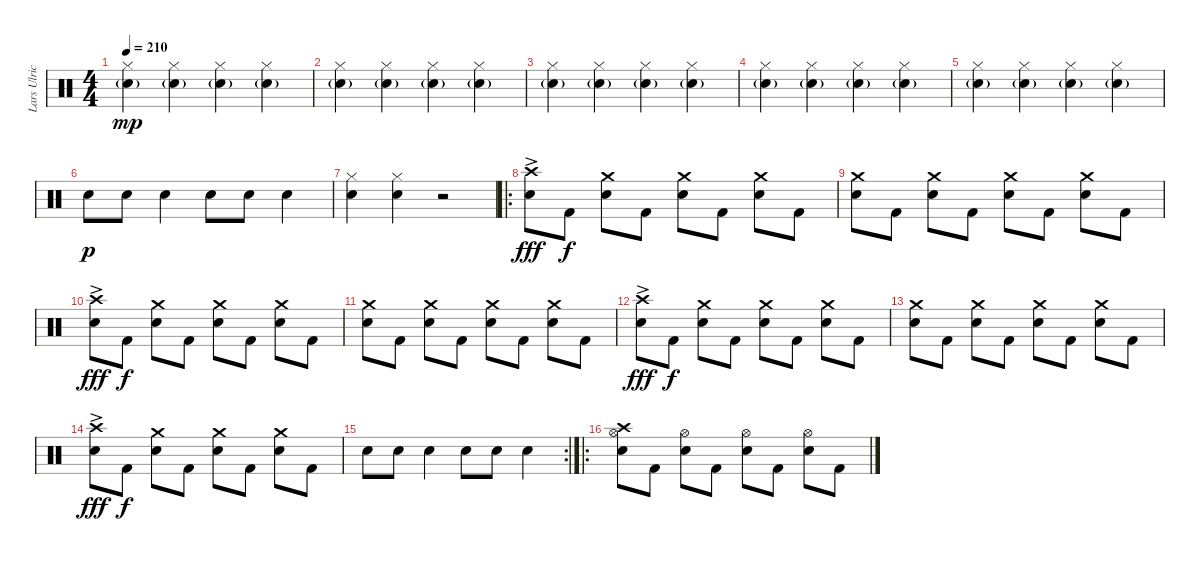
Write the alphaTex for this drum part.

\track ("Lars Ulrich" "Lars Ulric") {instrument percussion}
\staff {score}
\articulation defaults
\ts (4 4)
\tempo 210
\clef neutral
\ks c
("Hi-Hat (closed)" "Snare (hit) 2"{g}).4{dy mp} ("Hi-Hat (closed)" "Snare (hit) 2"{g}).4 ("Hi-Hat (closed)" "Snare (hit) 2"{g}).4 ("Hi-Hat (closed)" "Snare (hit) 2"{g}).4 |
("Hi-Hat (closed)" "Snare (hit) 2"{g}).4 ("Hi-Hat (closed)" "Snare (hit) 2"{g}).4 ("Hi-Hat (closed)" "Snare (hit) 2"{g}).4 ("Hi-Hat (closed)" "Snare (hit) 2"{g}).4 |
("Hi-Hat (closed)" "Snare (hit) 2"{g}).4 ("Hi-Hat (closed)" "Snare (hit) 2"{g}).4 ("Hi-Hat (closed)" "Snare (hit) 2"{g}).4 ("Hi-Hat (closed)" "Snare (hit) 2"{g}).4 |
("Hi-Hat (closed)" "Snare (hit) 2"{g}).4 ("Hi-Hat (closed)" "Snare (hit) 2"{g}).4 ("Hi-Hat (closed)" "Snare (hit) 2"{g}).4 ("Hi-Hat (closed)" "Snare (hit) 2"{g}).4 |
("Hi-Hat (closed)" "Snare (hit) 2"{g}).4 ("Hi-Hat (closed)" "Snare (hit) 2"{g}).4 ("Hi-Hat (closed)" "Snare (hit) 2"{g}).4 ("Hi-Hat (closed)" "Snare (hit) 2"{g}).4 |
"Snare (hit) 2".8{dy p} "Snare (hit) 2".8 "Snare (hit) 2".4 "Snare (hit) 2".8 "Snare (hit) 2".8 "Snare (hit) 2".4 |
("Hi-Hat (closed)" "Snare (hit) 2").4 ("Hi-Hat (closed)" "Snare (hit) 2").4 r.2 |
\ro
("Snare (hit) 2"{ac} "Crash high (hit)"{ac}).8{dy fff} "Kick (hit) 2".8{dy f} ("Crash medium (hit)" "Snare (hit) 2").8 "Kick (hit) 2".8 ("Crash medium (hit)" "Snare (hit) 2").8 "Kick (hit) 2".8 ("Crash medium (hit)" "Snare (hit) 2").8 "Kick (hit) 2".8 |
("Snare (hit) 2" "Crash medium (hit)").8 "Kick (hit) 2".8 ("Snare (hit) 2" "Crash medium (hit)").8 "Kick (hit) 2".8 ("Snare (hit) 2" "Crash medium (hit)").8 "Kick (hit) 2".8 ("Snare (hit) 2" "Crash medium (hit)").8 "Kick (hit) 2".8 |
("Snare (hit) 2"{ac} "Crash high (hit)"{ac}).8{dy fff} "Kick (hit) 2".8{dy f} ("Crash medium (hit)" "Snare (hit) 2").8 "Kick (hit) 2".8 ("Crash medium (hit)" "Snare (hit) 2").8 "Kick (hit) 2".8 ("Crash medium (hit)" "Snare (hit) 2").8 "Kick (hit) 2".8 |
("Snare (hit) 2" "Crash medium (hit)").8 "Kick (hit) 2".8 ("Snare (hit) 2" "Crash medium (hit)").8 "Kick (hit) 2".8 ("Snare (hit) 2" "Crash medium (hit)").8 "Kick (hit) 2".8 ("Snare (hit) 2" "Crash medium (hit)").8 "Kick (hit) 2".8 |
("Snare (hit) 2"{ac} "Crash high (hit)"{ac}).8{dy fff} "Kick (hit) 2".8{dy f} ("Crash medium (hit)" "Snare (hit) 2").8 "Kick (hit) 2".8 ("Crash medium (hit)" "Snare (hit) 2").8 "Kick (hit) 2".8 ("Crash medium (hit)" "Snare (hit) 2").8 "Kick (hit) 2".8 |
("Snare (hit) 2" "Crash medium (hit)").8 "Kick (hit) 2".8 ("Snare (hit) 2" "Crash medium (hit)").8 "Kick (hit) 2".8 ("Snare (hit) 2" "Crash medium (hit)").8 "Kick (hit) 2".8 ("Snare (hit) 2" "Crash medium (hit)").8 "Kick (hit) 2".8 |
("Snare (hit) 2"{ac} "Crash high (hit)"{ac}).8{dy fff} "Kick (hit) 2".8{dy f} ("Crash medium (hit)" "Snare (hit) 2").8 "Kick (hit) 2".8 ("Crash medium (hit)" "Snare (hit) 2").8 "Kick (hit) 2".8 ("Crash medium (hit)" "Snare (hit) 2").8 "Kick (hit) 2".8 |
\rc 2 "Snare (hit) 2".8 "Snare (hit) 2".8 "Snare (hit) 2".4 "Snare (hit) 2".8 "Snare (hit) 2".8 "Snare (hit) 2".4
|
\ro
("Snare (hit) 2" "Hi-Hat (open)" "Crash high (hit)").8 "Kick (hit) 2".8 ("Snare (hit) 2" "Hi-Hat (open)").8 "Kick (hit) 2".8 ("Snare (hit) 2" "Hi-Hat (open)").8 "Kick (hit) 2".8 ("Snare (hit) 2" "Hi-Hat (open)").8 "Kick (hit) 2".8
